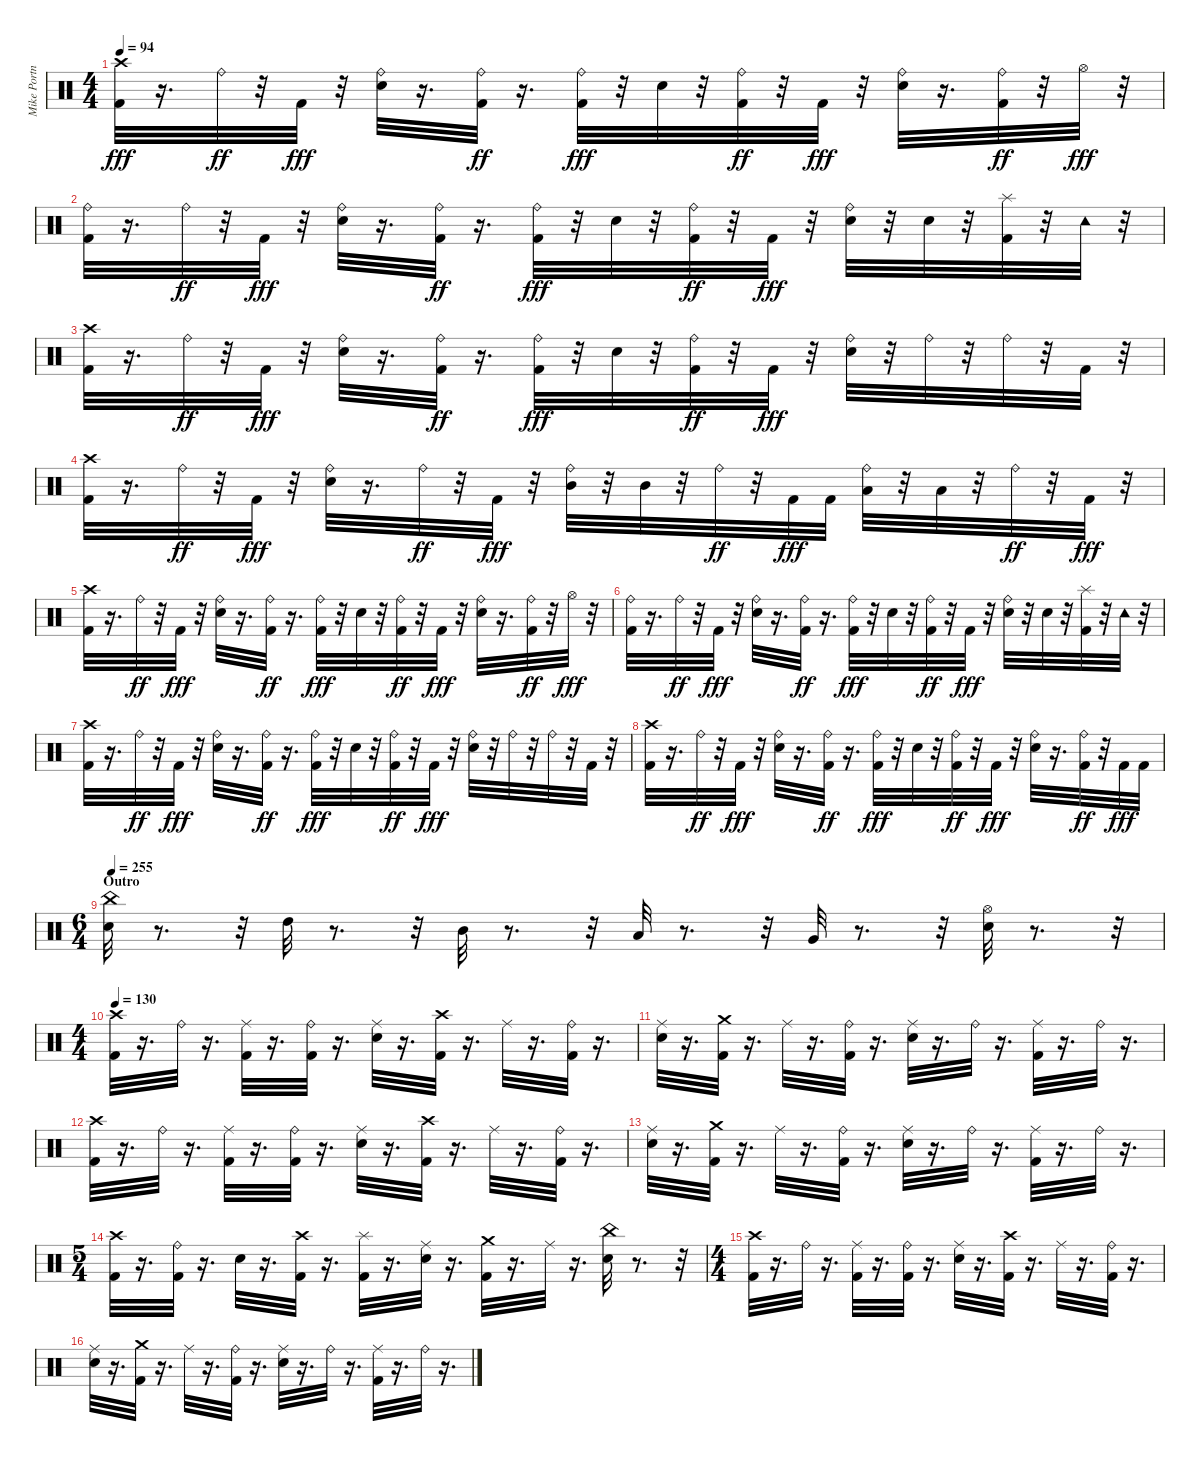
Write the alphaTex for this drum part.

\track ("Mike Portnoy" "Mike Portn") {instrument percussion}
\staff {score}
\articulation defaults
\ts (4 4)
\tempo 94
\clef neutral
\ks c
("Kick (hit) 2" "Crash high (hit)").32{dy fff} r.16{d} "Ride (bell)".32{dy ff} r.32 "Kick (hit) 2".32{dy fff} r.32 ("Ride (bell)" "Snare (hit) 2").32 r.16{d} ("Kick (hit) 2" "Ride (bell)").32{dy ff} r.16{d} ("Kick (hit) 2" "Ride (bell)").32{dy fff} r.32 "Snare (hit) 2".32 r.32 ("Kick (hit) 2" "Ride (bell)").32{dy ff} r.32 "Kick (hit) 2".32{dy fff} r.32 ("Ride (bell)" "Snare (hit) 2").32 r.16{d} ("Kick (hit) 2" "Ride (bell)").32{dy ff} r.32 "Hi-Hat (open)".32{dy fff} r.32 |
("Kick (hit) 2" "Ride (bell)").32 r.16{d} "Ride (bell)".32{dy ff} r.32 "Kick (hit) 2".32{dy fff} r.32 ("Ride (bell)" "Snare (hit) 2").32 r.16{d} ("Kick (hit) 2" "Ride (bell)").32{dy ff} r.16{d} ("Kick (hit) 2" "Ride (bell)").32{dy fff} r.32 "Snare (hit) 2".32 r.32 ("Kick (hit) 2" "Ride (bell)").32{dy ff} r.32 "Kick (hit) 2".32{dy fff} r.32 ("Ride (bell)" "Snare (hit) 2").32 r.32 "Snare (hit) 2".32 r.32 ("Kick (hit) 2" "Splash (hit)").32 r.32 "Tambourine (hit)".32 r.32 |
("Kick (hit) 2" "Crash high (hit)").32 r.16{d} "Ride (bell)".32{dy ff} r.32 "Kick (hit) 2".32{dy fff} r.32 ("Ride (bell)" "Snare (hit) 2").32 r.16{d} ("Kick (hit) 2" "Ride (bell)").32{dy ff} r.16{d} ("Kick (hit) 2" "Ride (bell)").32{dy fff} r.32 "Snare (hit) 2".32 r.32 ("Kick (hit) 2" "Ride (bell)").32{dy ff} r.32 "Kick (hit) 2".32{dy fff} r.32 ("Ride (bell)" "Snare (hit) 2").32 r.32 "Ride (bell)".32 r.32 "Ride (bell)".32 r.32 "Kick (hit) 2".32 r.32 |
("Kick (hit) 2" "Crash high (hit)").32 r.16{d} "Ride (bell)".32{dy ff} r.32 "Kick (hit) 2".32{dy fff} r.32 ("Ride (bell)" "Snare (hit) 2").32 r.16{d} "Ride (bell)".32{dy ff} r.32 "Kick (hit) 2".32{dy fff} r.32 ("Ride (bell)" "Mid Tom (hit)").32 r.32 "Mid Tom (hit)".32 r.32 "Ride (bell)".32{dy ff} r.32 "Kick (hit) 2".32{dy fff} "Kick (hit) 2".32 ("Ride (bell)" "Low Tom (hit)").32 r.32 "Low Tom (hit)".32 r.32 "Ride (bell)".32{dy ff} r.32 "Kick (hit) 2".32{dy fff} r.32 |
("Kick (hit) 2" "Crash high (hit)").32 r.16{d} "Ride (bell)".32{dy ff} r.32 "Kick (hit) 2".32{dy fff} r.32 ("Ride (bell)" "Snare (hit) 2").32 r.16{d} ("Kick (hit) 2" "Ride (bell)").32{dy ff} r.16{d} ("Kick (hit) 2" "Ride (bell)").32{dy fff} r.32 "Snare (hit) 2".32 r.32 ("Kick (hit) 2" "Ride (bell)").32{dy ff} r.32 "Kick (hit) 2".32{dy fff} r.32 ("Ride (bell)" "Snare (hit) 2").32 r.16{d} ("Kick (hit) 2" "Ride (bell)").32{dy ff} r.32 "Hi-Hat (open)".32{dy fff} r.32 |
("Kick (hit) 2" "Ride (bell)").32 r.16{d} "Ride (bell)".32{dy ff} r.32 "Kick (hit) 2".32{dy fff} r.32 ("Ride (bell)" "Snare (hit) 2").32 r.16{d} ("Kick (hit) 2" "Ride (bell)").32{dy ff} r.16{d} ("Kick (hit) 2" "Ride (bell)").32{dy fff} r.32 "Snare (hit) 2".32 r.32 ("Kick (hit) 2" "Ride (bell)").32{dy ff} r.32 "Kick (hit) 2".32{dy fff} r.32 ("Ride (bell)" "Snare (hit) 2").32 r.32 "Snare (hit) 2".32 r.32 ("Kick (hit) 2" "Splash (hit)").32 r.32 "Tambourine (hit)".32 r.32 |
("Kick (hit) 2" "Crash high (hit)").32 r.16{d} "Ride (bell)".32{dy ff} r.32 "Kick (hit) 2".32{dy fff} r.32 ("Ride (bell)" "Snare (hit) 2").32 r.16{d} ("Kick (hit) 2" "Ride (bell)").32{dy ff} r.16{d} ("Kick (hit) 2" "Ride (bell)").32{dy fff} r.32 "Snare (hit) 2".32 r.32 ("Kick (hit) 2" "Ride (bell)").32{dy ff} r.32 "Kick (hit) 2".32{dy fff} r.32 ("Ride (bell)" "Snare (hit) 2").32 r.32 "Ride (bell)".32 r.32 "Ride (bell)".32 r.32 "Kick (hit) 2".32 r.32 |
("Kick (hit) 2" "Crash high (hit)").32 r.16{d} "Ride (bell)".32{dy ff} r.32 "Kick (hit) 2".32{dy fff} r.32 ("Ride (bell)" "Snare (hit) 2").32 r.16{d} ("Kick (hit) 2" "Ride (bell)").32{dy ff} r.16{d} ("Kick (hit) 2" "Ride (bell)").32{dy fff} r.32 "Snare (hit) 2".32 r.32 ("Kick (hit) 2" "Ride (bell)").32{dy ff} r.32 "Kick (hit) 2".32{dy fff} r.32 ("Ride (bell)" "Snare (hit) 2").32 r.16{d} ("Kick (hit) 2" "Ride (bell)").32{dy ff} r.32 "Kick (hit) 2".32{dy fff} "Kick (hit) 2".32 |
\ts (6 4)
\section ("" "Outro")
\tempo 255
("Snare (hit) 2" "China (hit)").32 r.8{d} r.32 "High Tom (hit)".32 r.8{d} r.32 "Mid Tom (hit)".32 r.8{d} r.32 "Low Tom (hit)".32 r.8{d} r.32 "Very Low Tom (hit)".32 r.8{d} r.32 ("Snare (hit) 2" "Hi-Hat (open)").32 r.8{d} r.32 |
\ts (4 4)
\tempo 130
("Crash high (hit)" "Kick (hit) 2").32 r.16{d} "Ride (bell)".32 r.16{d} ("Kick (hit) 2" "Ride (middle)").32 r.16{d} ("Kick (hit) 2" "Ride (bell)").32 r.16{d} ("Snare (hit) 2" "Ride (middle)").32 r.16{d} ("Crash high (hit)" "Kick (hit) 2").32 r.16{d} "Ride (middle)".32 r.16{d} ("Kick (hit) 2" "Ride (bell)").32 r.16{d} |
("Snare (hit) 2" "Ride (middle)").32 r.16{d} ("Kick (hit) 2" "Crash medium (hit)").32 r.16{d} "Ride (middle)".32 r.16{d} ("Kick (hit) 2" "Ride (bell)").32 r.16{d} ("Snare (hit) 2" "Ride (middle)").32 r.16{d} "Ride (bell)".32 r.16{d} ("Kick (hit) 2" "Ride (middle)").32 r.16{d} "Ride (bell)".32 r.16{d} |
("Crash high (hit)" "Kick (hit) 2").32 r.16{d} "Ride (bell)".32 r.16{d} ("Kick (hit) 2" "Ride (middle)").32 r.16{d} ("Kick (hit) 2" "Ride (bell)").32 r.16{d} ("Snare (hit) 2" "Ride (middle)").32 r.16{d} ("Crash high (hit)" "Kick (hit) 2").32 r.16{d} "Ride (middle)".32 r.16{d} ("Kick (hit) 2" "Ride (bell)").32 r.16{d} |
("Snare (hit) 2" "Ride (middle)").32 r.16{d} ("Kick (hit) 2" "Crash medium (hit)").32 r.16{d} "Ride (middle)".32 r.16{d} ("Kick (hit) 2" "Ride (bell)").32 r.16{d} ("Snare (hit) 2" "Ride (middle)").32 r.16{d} "Ride (bell)".32 r.16{d} ("Kick (hit) 2" "Ride (middle)").32 r.16{d} "Ride (bell)".32 r.16{d} |
\ts (5 4)
("Kick (hit) 2" "Crash high (hit)").32 r.16{d} ("Ride (bell)" "Kick (hit) 2").32 r.16{d} "Snare (hit) 2".32 r.16{d} ("Kick (hit) 2" "Crash high (hit)").32 r.16{d} ("Kick (hit) 2" "Splash (hit)").32 r.16{d} ("Ride (middle)" "Snare (hit) 2").32 r.16{d} ("Kick (hit) 2" "Crash medium (hit)").32 r.16{d} "Ride (middle)".32 r.16{d} ("Snare (hit) 2" "China (hit)").32 r.8{d} r.32 |
\ts (4 4)
("Crash high (hit)" "Kick (hit) 2").32 r.16{d} "Ride (bell)".32 r.16{d} ("Kick (hit) 2" "Ride (middle)").32 r.16{d} ("Kick (hit) 2" "Ride (bell)").32 r.16{d} ("Snare (hit) 2" "Ride (middle)").32 r.16{d} ("Crash high (hit)" "Kick (hit) 2").32 r.16{d} "Ride (middle)".32 r.16{d} ("Kick (hit) 2" "Ride (bell)").32 r.16{d} |
("Snare (hit) 2" "Ride (middle)").32 r.16{d} ("Kick (hit) 2" "Crash medium (hit)").32 r.16{d} "Ride (middle)".32 r.16{d} ("Kick (hit) 2" "Ride (bell)").32 r.16{d} ("Snare (hit) 2" "Ride (middle)").32 r.16{d} "Ride (bell)".32 r.16{d} ("Kick (hit) 2" "Ride (middle)").32 r.16{d} "Ride (bell)".32 r.16{d}
